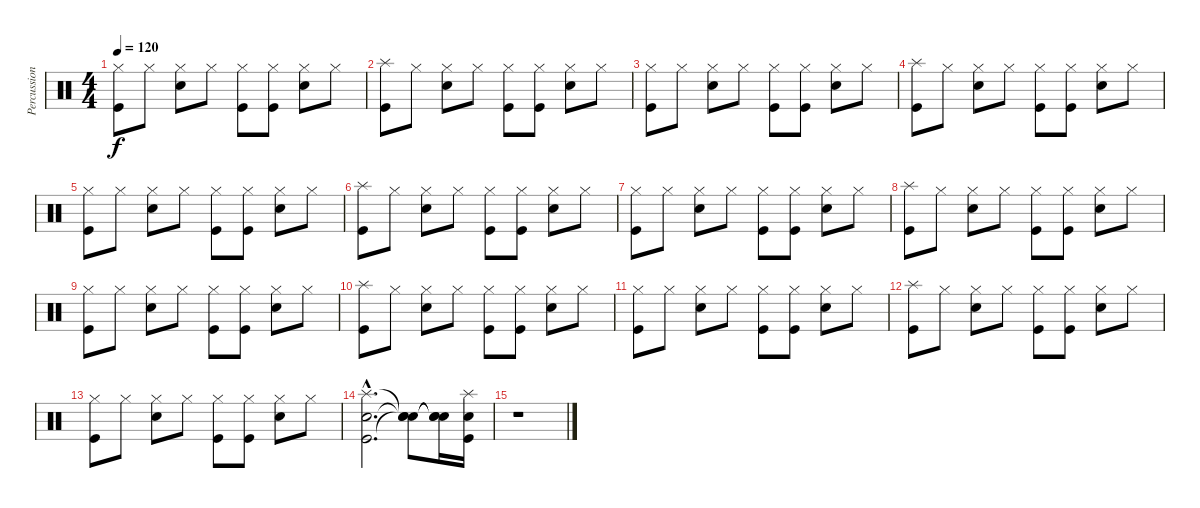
\track ("Percussion" "Percussion") {instrument percussion}
\staff {score}
\articulation defaults
\ts (4 4)
\tempo 120
\clef neutral
\ks c
("Hi-Hat (closed)" "Kick (hit)").8{dy f} "Hi-Hat (closed)".8 ("Hi-Hat (closed)" "Snare (hit) 2").8 "Hi-Hat (closed)".8 ("Hi-Hat (closed)" "Kick (hit)").8 ("Hi-Hat (closed)" "Kick (hit)").8 ("Hi-Hat (closed)" "Snare (hit) 2").8 "Hi-Hat (closed)".8 |
("Splash (hit)" "Kick (hit)").8 "Hi-Hat (closed)".8 ("Hi-Hat (closed)" "Snare (hit) 2").8 "Hi-Hat (closed)".8 ("Hi-Hat (closed)" "Kick (hit)").8 ("Hi-Hat (closed)" "Kick (hit)").8 ("Hi-Hat (closed)" "Snare (hit) 2").8 "Hi-Hat (closed)".8 |
("Hi-Hat (closed)" "Kick (hit)").8 "Hi-Hat (closed)".8 ("Hi-Hat (closed)" "Snare (hit) 2").8 "Hi-Hat (closed)".8 ("Hi-Hat (closed)" "Kick (hit)").8 ("Hi-Hat (closed)" "Kick (hit)").8 ("Hi-Hat (closed)" "Snare (hit) 2").8 "Hi-Hat (closed)".8 |
("Splash (hit)" "Kick (hit)").8 "Hi-Hat (closed)".8 ("Hi-Hat (closed)" "Snare (hit) 2").8 "Hi-Hat (closed)".8 ("Hi-Hat (closed)" "Kick (hit)").8 ("Hi-Hat (closed)" "Kick (hit)").8 ("Hi-Hat (closed)" "Snare (hit) 2").8 "Hi-Hat (closed)".8 |
("Hi-Hat (closed)" "Kick (hit)").8 "Hi-Hat (closed)".8 ("Hi-Hat (closed)" "Snare (hit) 2").8 "Hi-Hat (closed)".8 ("Hi-Hat (closed)" "Kick (hit)").8 ("Hi-Hat (closed)" "Kick (hit)").8 ("Hi-Hat (closed)" "Snare (hit) 2").8 "Hi-Hat (closed)".8 |
("Splash (hit)" "Kick (hit)").8 "Hi-Hat (closed)".8 ("Hi-Hat (closed)" "Snare (hit) 2").8 "Hi-Hat (closed)".8 ("Hi-Hat (closed)" "Kick (hit)").8 ("Hi-Hat (closed)" "Kick (hit)").8 ("Hi-Hat (closed)" "Snare (hit) 2").8 "Hi-Hat (closed)".8 |
("Hi-Hat (closed)" "Kick (hit)").8 "Hi-Hat (closed)".8 ("Hi-Hat (closed)" "Snare (hit) 2").8 "Hi-Hat (closed)".8 ("Hi-Hat (closed)" "Kick (hit)").8 ("Hi-Hat (closed)" "Kick (hit)").8 ("Hi-Hat (closed)" "Snare (hit) 2").8 "Hi-Hat (closed)".8 |
("Splash (hit)" "Kick (hit)").8 "Hi-Hat (closed)".8 ("Hi-Hat (closed)" "Snare (hit) 2").8 "Hi-Hat (closed)".8 ("Hi-Hat (closed)" "Kick (hit)").8 ("Hi-Hat (closed)" "Kick (hit)").8 ("Hi-Hat (closed)" "Snare (hit) 2").8 "Hi-Hat (closed)".8 |
("Hi-Hat (closed)" "Kick (hit)").8 "Hi-Hat (closed)".8 ("Hi-Hat (closed)" "Snare (hit) 2").8 "Hi-Hat (closed)".8 ("Hi-Hat (closed)" "Kick (hit)").8 ("Hi-Hat (closed)" "Kick (hit)").8 ("Hi-Hat (closed)" "Snare (hit) 2").8 "Hi-Hat (closed)".8 |
("Splash (hit)" "Kick (hit)").8 "Hi-Hat (closed)".8 ("Hi-Hat (closed)" "Snare (hit) 2").8 "Hi-Hat (closed)".8 ("Hi-Hat (closed)" "Kick (hit)").8 ("Hi-Hat (closed)" "Kick (hit)").8 ("Hi-Hat (closed)" "Snare (hit) 2").8 "Hi-Hat (closed)".8 |
("Hi-Hat (closed)" "Kick (hit)").8 "Hi-Hat (closed)".8 ("Hi-Hat (closed)" "Snare (hit) 2").8 "Hi-Hat (closed)".8 ("Hi-Hat (closed)" "Kick (hit)").8 ("Hi-Hat (closed)" "Kick (hit)").8 ("Hi-Hat (closed)" "Snare (hit) 2").8 "Hi-Hat (closed)".8 |
("Splash (hit)" "Kick (hit)").8 "Hi-Hat (closed)".8 ("Hi-Hat (closed)" "Snare (hit) 2").8 "Hi-Hat (closed)".8 ("Hi-Hat (closed)" "Kick (hit)").8 ("Hi-Hat (closed)" "Kick (hit)").8 ("Hi-Hat (closed)" "Snare (hit) 2").8 "Hi-Hat (closed)".8 |
("Hi-Hat (closed)" "Kick (hit)").8 "Hi-Hat (closed)".8 ("Hi-Hat (closed)" "Snare (hit) 2").8 "Hi-Hat (closed)".8 ("Hi-Hat (closed)" "Kick (hit)").8 ("Hi-Hat (closed)" "Kick (hit)").8 ("Hi-Hat (closed)" "Snare (hit) 2").8 "Hi-Hat (closed)".8 |
("Splash (hit)"{hac} "Snare (hit) 2"{hac} "Kick (hit)"{hac}).2{d} ("Snare (hit)"{t} "Snare (hit)"{t} "Snare (hit)"{t}).8 ("Snare (hit)"{t} "Snare (hit)"{t} "Snare (hit)"{t}).16 ("Splash (hit)" "Snare (hit) 2" "Kick (hit)").16 |
r.1
